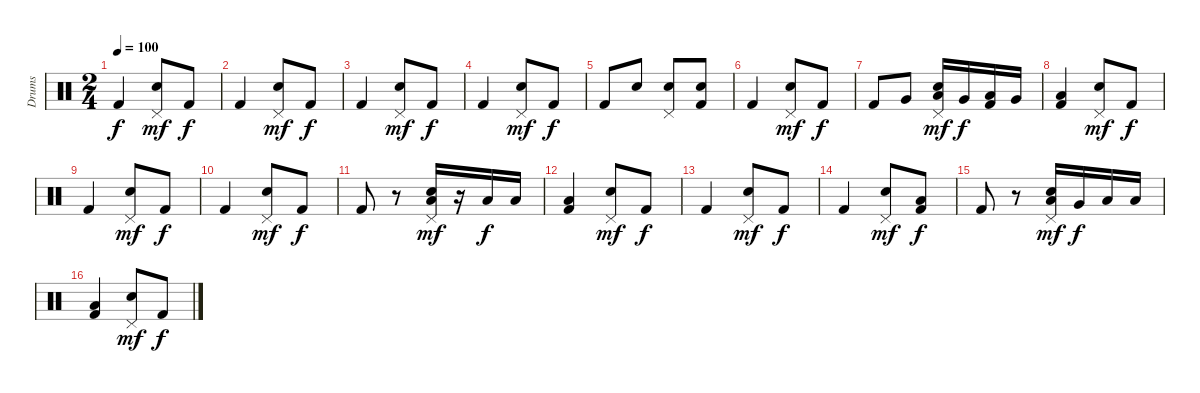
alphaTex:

\track ("Drums" "Drums") {instrument percussion}
\staff {score}
\articulation defaults
\ts (2 4)
\tempo 100
\clef neutral
\ks c "Kick (hit) 2".4{dy f}
("Pedal Hi-Hat (hit)" "Electric Snare (hit)").8{dy mf} "Kick (hit) 2".8{dy f} |
"Kick (hit) 2".4 ("Pedal Hi-Hat (hit)" "Electric Snare (hit)").8{dy mf} "Kick (hit) 2".8{dy f} |
"Kick (hit) 2".4 ("Pedal Hi-Hat (hit)" "Electric Snare (hit)").8{dy mf} "Kick (hit) 2".8{dy f} |
"Kick (hit) 2".4 ("Pedal Hi-Hat (hit)" "Electric Snare (hit)").8{dy mf} "Kick (hit) 2".8{dy f} |
"Kick (hit) 2".8 "Electric Snare (hit)".8 ("Pedal Hi-Hat (hit)" "Electric Snare (hit)").8 ("Electric Snare (hit)" "Kick (hit) 2").8 |
"Kick (hit) 2".4 ("Pedal Hi-Hat (hit)" "Electric Snare (hit)").8{dy mf} "Kick (hit) 2".8{dy f} |
"Kick (hit) 2".8 "Very Low Tom (hit)".8 ("Pedal Hi-Hat (hit)" "Low Floor Tom (hit)" "Electric Snare (hit)").16{dy mf} "Very Low Tom (hit)".16{dy f} ("Low Floor Tom (hit)" "Kick (hit) 2").16 "Very Low Tom (hit)".16 |
("Low Floor Tom (hit)" "Kick (hit) 2").4 ("Pedal Hi-Hat (hit)" "Electric Snare (hit)").8{dy mf} "Kick (hit) 2".8{dy f} |
"Kick (hit) 2".4 ("Pedal Hi-Hat (hit)" "Electric Snare (hit)").8{dy mf} "Kick (hit) 2".8{dy f} |
"Kick (hit) 2".4 ("Pedal Hi-Hat (hit)" "Electric Snare (hit)").8{dy mf} "Kick (hit) 2".8{dy f} |
"Kick (hit) 2".8 r.8 ("Pedal Hi-Hat (hit)" "Low Floor Tom (hit)" "Electric Snare (hit)").16{dy mf} r.16 "Low Floor Tom (hit)".16{dy f} "Low Floor Tom (hit)".16 |
("Low Floor Tom (hit)" "Kick (hit) 2").4 ("Pedal Hi-Hat (hit)" "Electric Snare (hit)").8{dy mf} "Kick (hit) 2".8{dy f} |
"Kick (hit) 2".4 ("Pedal Hi-Hat (hit)" "Electric Snare (hit)").8{dy mf} "Kick (hit) 2".8{dy f} |
"Kick (hit) 2".4 ("Pedal Hi-Hat (hit)" "Electric Snare (hit)").8{dy mf} ("Low Floor Tom (hit)" "Kick (hit) 2").8{dy f} |
"Kick (hit) 2".8 r.8 ("Pedal Hi-Hat (hit)" "Low Floor Tom (hit)" "Electric Snare (hit)").16{dy mf} "Very Low Tom (hit)".16{dy f} "Low Floor Tom (hit)".16 "Low Floor Tom (hit)".16 |
("Low Floor Tom (hit)" "Kick (hit) 2").4 ("Pedal Hi-Hat (hit)" "Electric Snare (hit)").8{dy mf} "Kick (hit) 2".8{dy f}
